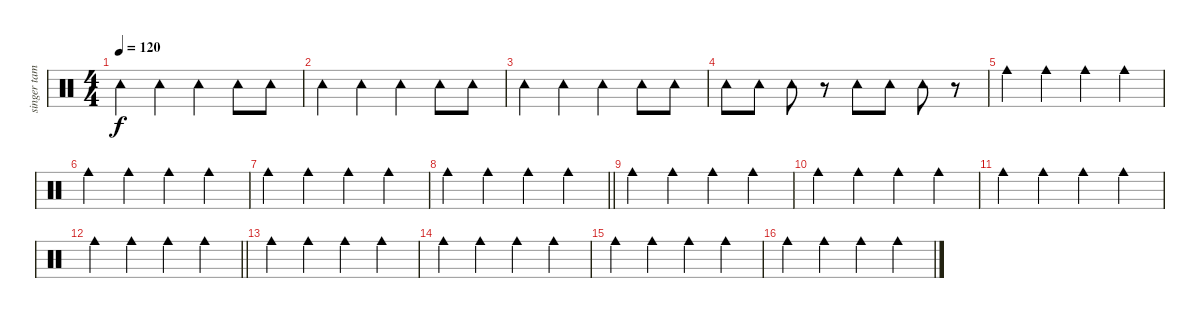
\track ("singer tambo" "singer tam") {instrument percussion}
\staff {score}
\articulation defaults
\ts (4 4)
\tempo 120
\clef neutral
\ks c "Tambourine (hit)".4{dy f} "Tambourine (hit)".4 "Tambourine (hit)".4 "Tambourine (hit)".8 "Tambourine (hit)".8
|
"Tambourine (hit)".4 "Tambourine (hit)".4 "Tambourine (hit)".4 "Tambourine (hit)".8 "Tambourine (hit)".8 |
"Tambourine (hit)".4 "Tambourine (hit)".4 "Tambourine (hit)".4 "Tambourine (hit)".8 "Tambourine (hit)".8 |
"Tambourine (hit)".8 "Tambourine (hit)".8 "Tambourine (hit)".8 r.8 "Tambourine (hit)".8 "Tambourine (hit)".8 "Tambourine (hit)".8 r.8 |
"Cowbell medium (hit)".4 "Cowbell medium (hit)".4 "Cowbell medium (hit)".4 "Cowbell medium (hit)".4 |
"Cowbell medium (hit)".4 "Cowbell medium (hit)".4 "Cowbell medium (hit)".4 "Cowbell medium (hit)".4 |
"Cowbell medium (hit)".4 "Cowbell medium (hit)".4 "Cowbell medium (hit)".4 "Cowbell medium (hit)".4 |
\barLineRight lightlight "Cowbell medium (hit)".4 "Cowbell medium (hit)".4 "Cowbell medium (hit)".4 "Cowbell medium (hit)".4
|
"Cowbell medium (hit)".4 "Cowbell medium (hit)".4 "Cowbell medium (hit)".4 "Cowbell medium (hit)".4 |
"Cowbell medium (hit)".4 "Cowbell medium (hit)".4 "Cowbell medium (hit)".4 "Cowbell medium (hit)".4 |
"Cowbell medium (hit)".4 "Cowbell medium (hit)".4 "Cowbell medium (hit)".4 "Cowbell medium (hit)".4 |
\barLineRight lightlight "Cowbell medium (hit)".4 "Cowbell medium (hit)".4 "Cowbell medium (hit)".4 "Cowbell medium (hit)".4
|
"Cowbell medium (hit)".4 "Cowbell medium (hit)".4 "Cowbell medium (hit)".4 "Cowbell medium (hit)".4 |
"Cowbell medium (hit)".4 "Cowbell medium (hit)".4 "Cowbell medium (hit)".4 "Cowbell medium (hit)".4 |
"Cowbell medium (hit)".4 "Cowbell medium (hit)".4 "Cowbell medium (hit)".4 "Cowbell medium (hit)".4 |
"Cowbell medium (hit)".4 "Cowbell medium (hit)".4 "Cowbell medium (hit)".4 "Cowbell medium (hit)".4
